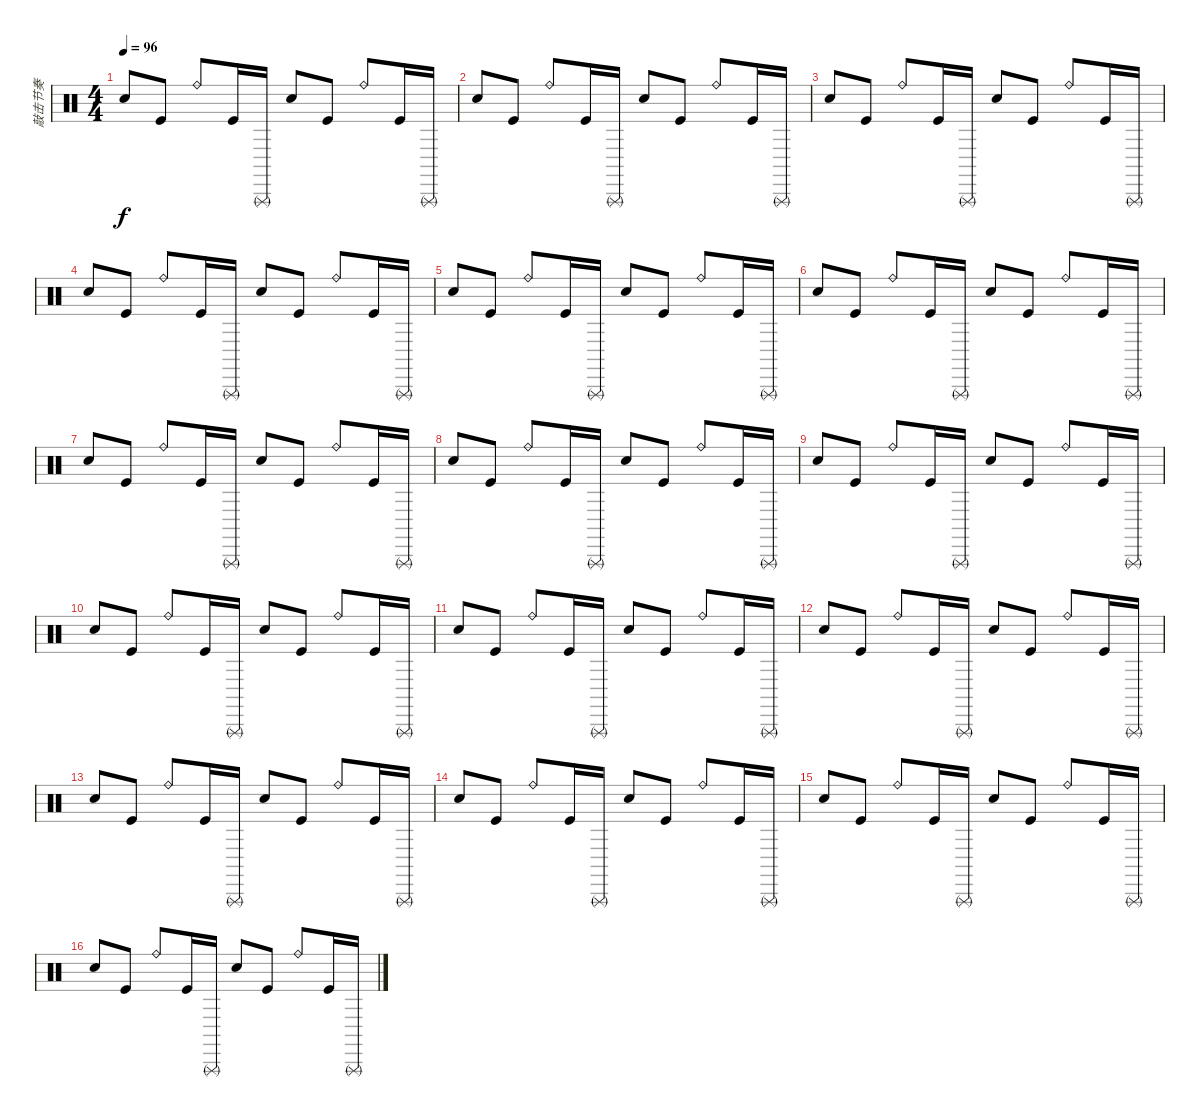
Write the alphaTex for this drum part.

\track ("敲击节奏" "敲击节奏") {instrument percussion}
\staff {score}
\articulation defaults
\ts (4 4)
\tempo 96
\clef neutral
\ks c "Snare (hit) 2".8{dy f} "Kick (hit)".8 "Ride (bell)".8 "Kick (hit)".16 "Triangle (rnute)".16 "Snare (hit) 2".8 "Kick (hit)".8 "Ride (bell)".8 "Kick (hit)".16 "Triangle (rnute)".16
|
"Snare (hit) 2".8 "Kick (hit)".8 "Ride (bell)".8 "Kick (hit)".16 "Triangle (rnute)".16 "Snare (hit) 2".8 "Kick (hit)".8 "Ride (bell)".8 "Kick (hit)".16 "Triangle (rnute)".16 |
"Snare (hit) 2".8 "Kick (hit)".8 "Ride (bell)".8 "Kick (hit)".16 "Triangle (rnute)".16 "Snare (hit) 2".8 "Kick (hit)".8 "Ride (bell)".8 "Kick (hit)".16 "Triangle (rnute)".16 |
"Snare (hit) 2".8 "Kick (hit)".8 "Ride (bell)".8 "Kick (hit)".16 "Triangle (rnute)".16 "Snare (hit) 2".8 "Kick (hit)".8 "Ride (bell)".8 "Kick (hit)".16 "Triangle (rnute)".16 |
"Snare (hit) 2".8 "Kick (hit)".8 "Ride (bell)".8 "Kick (hit)".16 "Triangle (rnute)".16 "Snare (hit) 2".8 "Kick (hit)".8 "Ride (bell)".8 "Kick (hit)".16 "Triangle (rnute)".16 |
"Snare (hit) 2".8 "Kick (hit)".8 "Ride (bell)".8 "Kick (hit)".16 "Triangle (rnute)".16 "Snare (hit) 2".8 "Kick (hit)".8 "Ride (bell)".8 "Kick (hit)".16 "Triangle (rnute)".16 |
"Snare (hit) 2".8 "Kick (hit)".8 "Ride (bell)".8 "Kick (hit)".16 "Triangle (rnute)".16 "Snare (hit) 2".8 "Kick (hit)".8 "Ride (bell)".8 "Kick (hit)".16 "Triangle (rnute)".16 |
"Snare (hit) 2".8 "Kick (hit)".8 "Ride (bell)".8 "Kick (hit)".16 "Triangle (rnute)".16 "Snare (hit) 2".8 "Kick (hit)".8 "Ride (bell)".8 "Kick (hit)".16 "Triangle (rnute)".16 |
"Snare (hit) 2".8 "Kick (hit)".8 "Ride (bell)".8 "Kick (hit)".16 "Triangle (rnute)".16 "Snare (hit) 2".8 "Kick (hit)".8 "Ride (bell)".8 "Kick (hit)".16 "Triangle (rnute)".16 |
"Snare (hit) 2".8 "Kick (hit)".8 "Ride (bell)".8 "Kick (hit)".16 "Triangle (rnute)".16 "Snare (hit) 2".8 "Kick (hit)".8 "Ride (bell)".8 "Kick (hit)".16 "Triangle (rnute)".16 |
"Snare (hit) 2".8 "Kick (hit)".8 "Ride (bell)".8 "Kick (hit)".16 "Triangle (rnute)".16 "Snare (hit) 2".8 "Kick (hit)".8 "Ride (bell)".8 "Kick (hit)".16 "Triangle (rnute)".16 |
"Snare (hit) 2".8 "Kick (hit)".8 "Ride (bell)".8 "Kick (hit)".16 "Triangle (rnute)".16 "Snare (hit) 2".8 "Kick (hit)".8 "Ride (bell)".8 "Kick (hit)".16 "Triangle (rnute)".16 |
"Snare (hit) 2".8 "Kick (hit)".8 "Ride (bell)".8 "Kick (hit)".16 "Triangle (rnute)".16 "Snare (hit) 2".8 "Kick (hit)".8 "Ride (bell)".8 "Kick (hit)".16 "Triangle (rnute)".16 |
"Snare (hit) 2".8 "Kick (hit)".8 "Ride (bell)".8 "Kick (hit)".16 "Triangle (rnute)".16 "Snare (hit) 2".8 "Kick (hit)".8 "Ride (bell)".8 "Kick (hit)".16 "Triangle (rnute)".16 |
"Snare (hit) 2".8 "Kick (hit)".8 "Ride (bell)".8 "Kick (hit)".16 "Triangle (rnute)".16 "Snare (hit) 2".8 "Kick (hit)".8 "Ride (bell)".8 "Kick (hit)".16 "Triangle (rnute)".16 |
"Snare (hit) 2".8 "Kick (hit)".8 "Ride (bell)".8 "Kick (hit)".16 "Triangle (rnute)".16 "Snare (hit) 2".8 "Kick (hit)".8 "Ride (bell)".8 "Kick (hit)".16 "Triangle (rnute)".16
